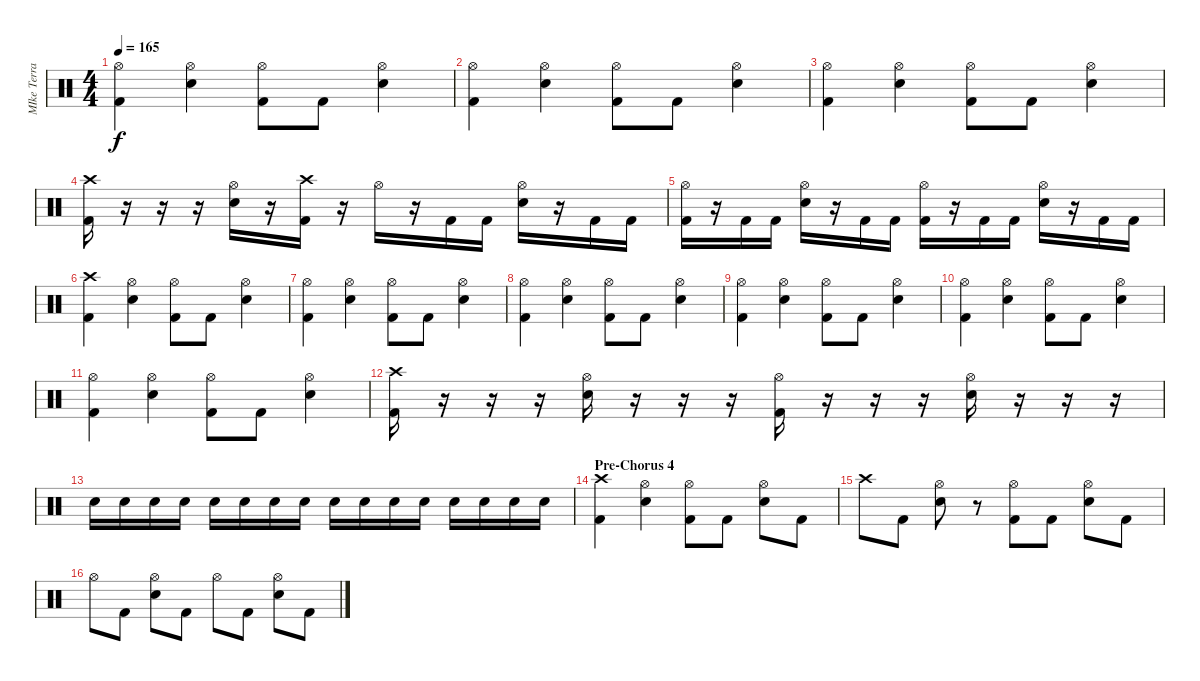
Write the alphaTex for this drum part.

\track ("MIke Terrana - Batteria" "MIke Terra") {instrument percussion}
\staff {score}
\articulation defaults
\ts (4 4)
\tempo 165
\clef neutral
\ks c
("Kick (hit) 2" "Hi-Hat (open)").4{dy f} ("Electric Snare (hit)" "Hi-Hat (open)").4 ("Kick (hit) 2" "Hi-Hat (open)").8 "Kick (hit) 2".8 ("Electric Snare (hit)" "Hi-Hat (open)").4 |
("Kick (hit) 2" "Hi-Hat (open)").4 ("Electric Snare (hit)" "Hi-Hat (open)").4 ("Kick (hit) 2" "Hi-Hat (open)").8 "Kick (hit) 2".8 ("Electric Snare (hit)" "Hi-Hat (open)").4 |
("Kick (hit) 2" "Hi-Hat (open)").4 ("Electric Snare (hit)" "Hi-Hat (open)").4 ("Kick (hit) 2" "Hi-Hat (open)").8 "Kick (hit) 2".8 ("Electric Snare (hit)" "Hi-Hat (open)").4 |
("Kick (hit) 2" "Crash high (hit)").16 r.16 r.16 r.16 ("Electric Snare (hit)" "Hi-Hat (open)").16 r.16 ("Kick (hit) 2" "Crash high (hit)").16 r.16 "Hi-Hat (open)".16 r.16 "Kick (hit) 2".16 "Kick (hit) 2".16 ("Electric Snare (hit)" "Hi-Hat (open)").16 r.16 "Kick (hit) 2".16 "Kick (hit) 2".16 |
("Kick (hit) 2" "Hi-Hat (open)").16 r.16 "Kick (hit) 2".16 "Kick (hit) 2".16 ("Electric Snare (hit)" "Hi-Hat (open)").16 r.16 "Kick (hit) 2".16 "Kick (hit) 2".16 ("Kick (hit) 2" "Hi-Hat (open)").16 r.16 "Kick (hit) 2".16 "Kick (hit) 2".16 ("Electric Snare (hit)" "Hi-Hat (open)").16 r.16 "Kick (hit) 2".16 "Kick (hit) 2".16 |
("Kick (hit) 2" "Crash high (hit)").4 ("Electric Snare (hit)" "Hi-Hat (open)").4 ("Kick (hit) 2" "Hi-Hat (open)").8 "Kick (hit) 2".8 ("Electric Snare (hit)" "Hi-Hat (open)").4 |
("Kick (hit) 2" "Hi-Hat (open)").4 ("Electric Snare (hit)" "Hi-Hat (open)").4 ("Kick (hit) 2" "Hi-Hat (open)").8 "Kick (hit) 2".8 ("Electric Snare (hit)" "Hi-Hat (open)").4 |
("Kick (hit) 2" "Hi-Hat (open)").4 ("Electric Snare (hit)" "Hi-Hat (open)").4 ("Kick (hit) 2" "Hi-Hat (open)").8 "Kick (hit) 2".8 ("Electric Snare (hit)" "Hi-Hat (open)").4 |
("Kick (hit) 2" "Hi-Hat (open)").4 ("Electric Snare (hit)" "Hi-Hat (open)").4 ("Kick (hit) 2" "Hi-Hat (open)").8 "Kick (hit) 2".8 ("Electric Snare (hit)" "Hi-Hat (open)").4 |
("Kick (hit) 2" "Hi-Hat (open)").4 ("Electric Snare (hit)" "Hi-Hat (open)").4 ("Kick (hit) 2" "Hi-Hat (open)").8 "Kick (hit) 2".8 ("Electric Snare (hit)" "Hi-Hat (open)").4 |
("Kick (hit) 2" "Hi-Hat (open)").4 ("Electric Snare (hit)" "Hi-Hat (open)").4 ("Kick (hit) 2" "Hi-Hat (open)").8 "Kick (hit) 2".8 ("Electric Snare (hit)" "Hi-Hat (open)").4 |
("Kick (hit) 2" "Crash high (hit)").16 r.16 r.16 r.16 ("Electric Snare (hit)" "Hi-Hat (open)").16 r.16 r.16 r.16 ("Kick (hit) 2" "Hi-Hat (open)").16 r.16 r.16 r.16 ("Electric Snare (hit)" "Hi-Hat (open)").16 r.16 r.16 r.16 |
"Electric Snare (hit)".16 "Electric Snare (hit)".16 "Electric Snare (hit)".16 "Electric Snare (hit)".16 "Electric Snare (hit)".16 "Electric Snare (hit)".16 "Electric Snare (hit)".16 "Electric Snare (hit)".16 "Electric Snare (hit)".16 "Electric Snare (hit)".16 "Electric Snare (hit)".16 "Electric Snare (hit)".16 "Electric Snare (hit)".16 "Electric Snare (hit)".16 "Electric Snare (hit)".16 "Electric Snare (hit)".16 |
\section ("" "Pre-Chorus 4")
("Kick (hit) 2" "Crash high (hit)").4 ("Electric Snare (hit)" "Hi-Hat (open)").4 ("Kick (hit) 2" "Hi-Hat (open)").8 "Kick (hit) 2".8 ("Electric Snare (hit)" "Hi-Hat (open)").8 "Kick (hit) 2".8 |
"Crash high (hit)".8 "Kick (hit) 2".8 ("Electric Snare (hit)" "Hi-Hat (open)").8 r.8 ("Kick (hit) 2" "Hi-Hat (open)").8 "Kick (hit) 2".8 ("Electric Snare (hit)" "Hi-Hat (open)").8 "Kick (hit) 2".8 |
"Hi-Hat (open)".8 "Kick (hit) 2".8 ("Electric Snare (hit)" "Hi-Hat (open)").8 "Kick (hit) 2".8 "Hi-Hat (open)".8 "Kick (hit) 2".8 ("Electric Snare (hit)" "Hi-Hat (open)").8 "Kick (hit) 2".8
